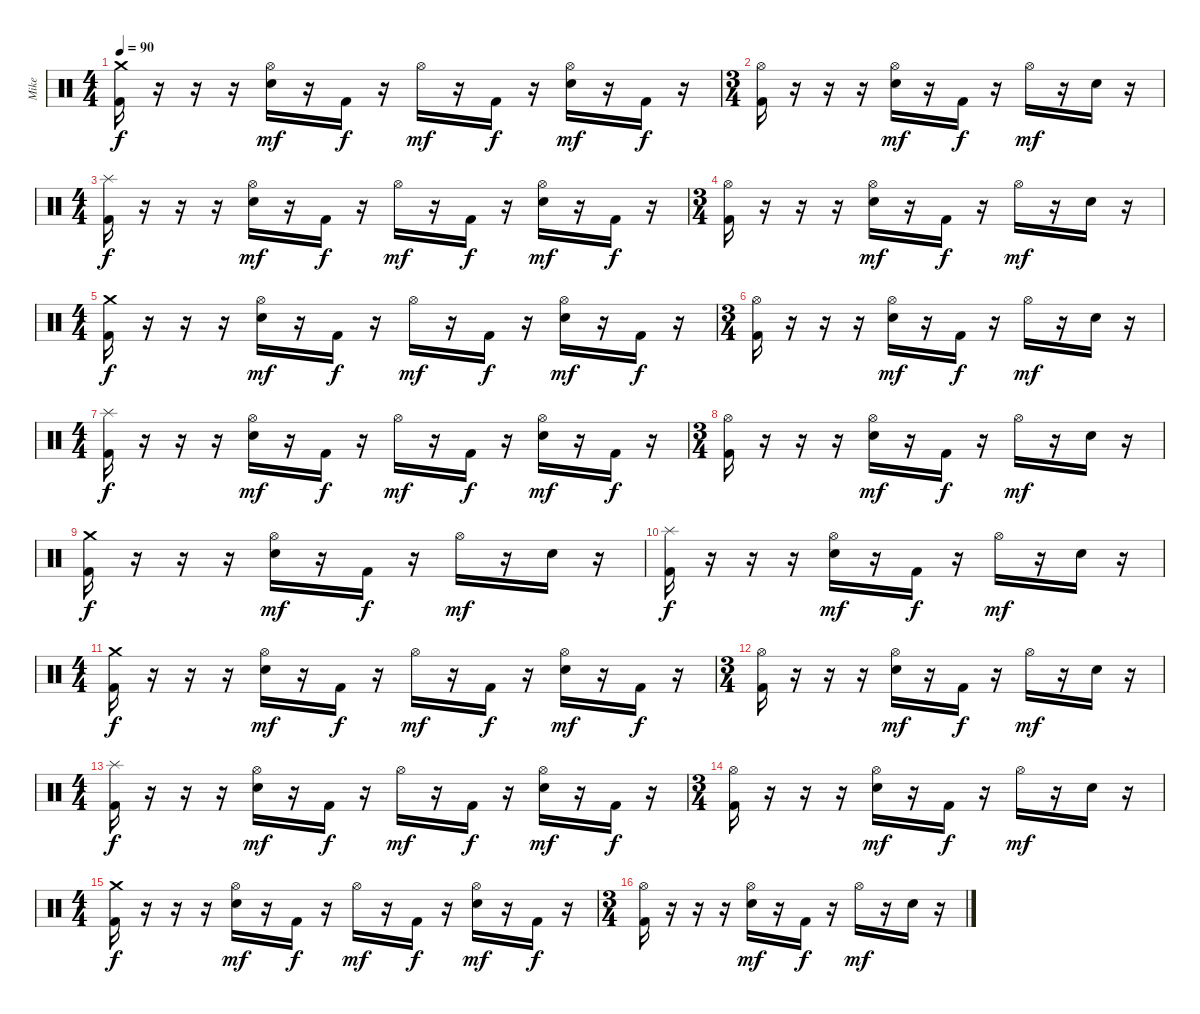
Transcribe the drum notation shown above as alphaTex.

\track ("Mike" "Mike") {instrument percussion}
\staff {score}
\articulation defaults
\ts (4 4)
\tempo 90
\clef neutral
\ks c
("Crash medium (hit)" "Kick (hit) 2").16{dy f} r.16 r.16 r.16 ("Hi-Hat (open)" "Snare (hit) 2").16{dy mf} r.16 "Kick (hit) 2".16{dy f} r.16 "Hi-Hat (open)".16{dy mf} r.16 "Kick (hit) 2".16{dy f} r.16 ("Hi-Hat (open)" "Snare (hit) 2").16{dy mf} r.16 "Kick (hit) 2".16{dy f} r.16 |
\ts (3 4)
("Hi-Hat (open)" "Kick (hit) 2").16 r.16 r.16 r.16 ("Hi-Hat (open)" "Snare (hit) 2").16{dy mf} r.16 "Kick (hit) 2".16{dy f} r.16 "Hi-Hat (open)".16{dy mf} r.16 "Snare (hit) 2".16 r.16 |
\ts (4 4)
("Splash (hit)" "Kick (hit) 2").16{dy f} r.16 r.16 r.16 ("Hi-Hat (open)" "Snare (hit) 2").16{dy mf} r.16 "Kick (hit) 2".16{dy f} r.16 "Hi-Hat (open)".16{dy mf} r.16 "Kick (hit) 2".16{dy f} r.16 ("Hi-Hat (open)" "Snare (hit) 2").16{dy mf} r.16 "Kick (hit) 2".16{dy f} r.16 |
\ts (3 4)
("Hi-Hat (open)" "Kick (hit) 2").16 r.16 r.16 r.16 ("Hi-Hat (open)" "Snare (hit) 2").16{dy mf} r.16 "Kick (hit) 2".16{dy f} r.16 "Hi-Hat (open)".16{dy mf} r.16 "Snare (hit) 2".16 r.16 |
\ts (4 4)
("Crash medium (hit)" "Kick (hit) 2").16{dy f} r.16 r.16 r.16 ("Hi-Hat (open)" "Snare (hit) 2").16{dy mf} r.16 "Kick (hit) 2".16{dy f} r.16 "Hi-Hat (open)".16{dy mf} r.16 "Kick (hit) 2".16{dy f} r.16 ("Hi-Hat (open)" "Snare (hit) 2").16{dy mf} r.16 "Kick (hit) 2".16{dy f} r.16 |
\ts (3 4)
("Hi-Hat (open)" "Kick (hit) 2").16 r.16 r.16 r.16 ("Hi-Hat (open)" "Snare (hit) 2").16{dy mf} r.16 "Kick (hit) 2".16{dy f} r.16 "Hi-Hat (open)".16{dy mf} r.16 "Snare (hit) 2".16 r.16 |
\ts (4 4)
("Splash (hit)" "Kick (hit) 2").16{dy f} r.16 r.16 r.16 ("Hi-Hat (open)" "Snare (hit) 2").16{dy mf} r.16 "Kick (hit) 2".16{dy f} r.16 "Hi-Hat (open)".16{dy mf} r.16 "Kick (hit) 2".16{dy f} r.16 ("Hi-Hat (open)" "Snare (hit) 2").16{dy mf} r.16 "Kick (hit) 2".16{dy f} r.16 |
\ts (3 4)
("Hi-Hat (open)" "Kick (hit) 2").16 r.16 r.16 r.16 ("Hi-Hat (open)" "Snare (hit) 2").16{dy mf} r.16 "Kick (hit) 2".16{dy f} r.16 "Hi-Hat (open)".16{dy mf} r.16 "Snare (hit) 2".16 r.16 |
("Crash medium (hit)" "Kick (hit) 2").16{dy f} r.16 r.16 r.16 ("Hi-Hat (open)" "Snare (hit) 2").16{dy mf} r.16 "Kick (hit) 2".16{dy f} r.16 "Hi-Hat (open)".16{dy mf} r.16 "Snare (hit) 2".16 r.16 |
("Splash (hit)" "Kick (hit) 2").16{dy f} r.16 r.16 r.16 ("Hi-Hat (open)" "Snare (hit) 2").16{dy mf} r.16 "Kick (hit) 2".16{dy f} r.16 "Hi-Hat (open)".16{dy mf} r.16 "Snare (hit) 2".16 r.16 |
\ts (4 4)
("Crash medium (hit)" "Kick (hit) 2").16{dy f} r.16 r.16 r.16 ("Hi-Hat (open)" "Snare (hit) 2").16{dy mf} r.16 "Kick (hit) 2".16{dy f} r.16 "Hi-Hat (open)".16{dy mf} r.16 "Kick (hit) 2".16{dy f} r.16 ("Hi-Hat (open)" "Snare (hit) 2").16{dy mf} r.16 "Kick (hit) 2".16{dy f} r.16 |
\ts (3 4)
("Hi-Hat (open)" "Kick (hit) 2").16 r.16 r.16 r.16 ("Hi-Hat (open)" "Snare (hit) 2").16{dy mf} r.16 "Kick (hit) 2".16{dy f} r.16 "Hi-Hat (open)".16{dy mf} r.16 "Snare (hit) 2".16 r.16 |
\ts (4 4)
("Splash (hit)" "Kick (hit) 2").16{dy f} r.16 r.16 r.16 ("Hi-Hat (open)" "Snare (hit) 2").16{dy mf} r.16 "Kick (hit) 2".16{dy f} r.16 "Hi-Hat (open)".16{dy mf} r.16 "Kick (hit) 2".16{dy f} r.16 ("Hi-Hat (open)" "Snare (hit) 2").16{dy mf} r.16 "Kick (hit) 2".16{dy f} r.16 |
\ts (3 4)
("Hi-Hat (open)" "Kick (hit) 2").16 r.16 r.16 r.16 ("Hi-Hat (open)" "Snare (hit) 2").16{dy mf} r.16 "Kick (hit) 2".16{dy f} r.16 "Hi-Hat (open)".16{dy mf} r.16 "Snare (hit) 2".16 r.16 |
\ts (4 4)
("Crash medium (hit)" "Kick (hit) 2").16{dy f} r.16 r.16 r.16 ("Hi-Hat (open)" "Snare (hit) 2").16{dy mf} r.16 "Kick (hit) 2".16{dy f} r.16 "Hi-Hat (open)".16{dy mf} r.16 "Kick (hit) 2".16{dy f} r.16 ("Hi-Hat (open)" "Snare (hit) 2").16{dy mf} r.16 "Kick (hit) 2".16{dy f} r.16 |
\ts (3 4)
("Hi-Hat (open)" "Kick (hit) 2").16 r.16 r.16 r.16 ("Hi-Hat (open)" "Snare (hit) 2").16{dy mf} r.16 "Kick (hit) 2".16{dy f} r.16 "Hi-Hat (open)".16{dy mf} r.16 "Snare (hit) 2".16 r.16
